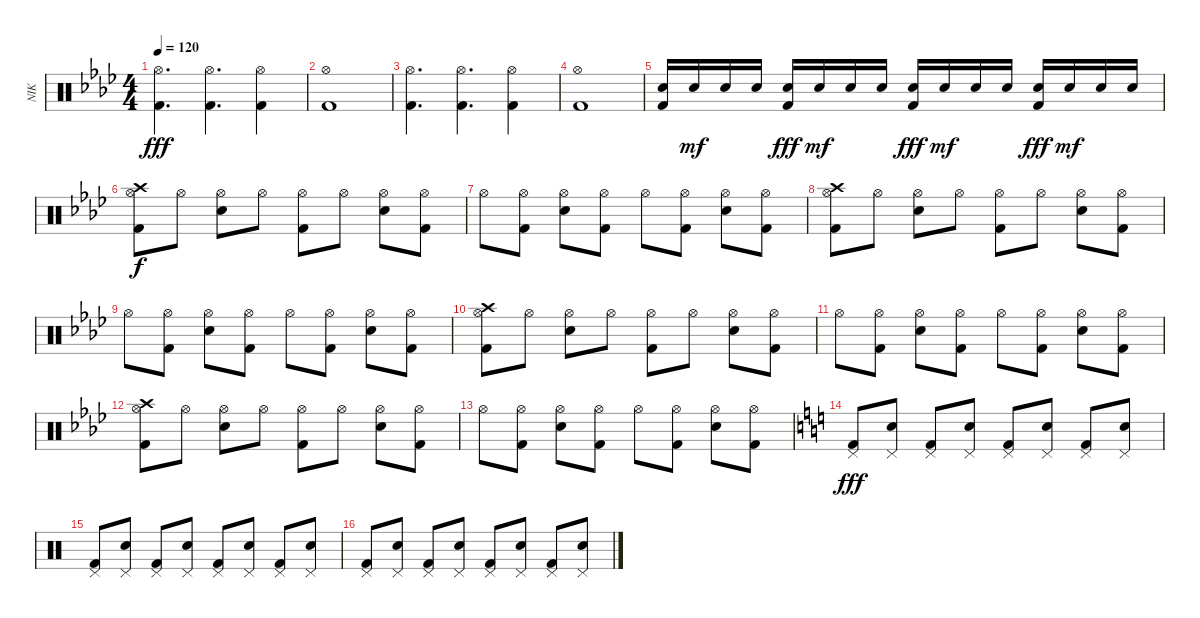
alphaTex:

\track ("NIK" "NIK") {instrument percussion}
\staff {score}
\articulation defaults
\ts (4 4)
\tempo 120
\clef neutral
\ks ab
("Kick (hit) 2" "Hi-Hat (open)").4{d dy fff} ("Kick (hit) 2" "Hi-Hat (open)").4{d} ("Kick (hit) 2" "Hi-Hat (open)").4 |
("Kick (hit) 2" "Hi-Hat (open)").1 |
("Kick (hit) 2" "Hi-Hat (open)").4{d} ("Kick (hit) 2" "Hi-Hat (open)").4{d} ("Kick (hit) 2" "Hi-Hat (open)").4 |
("Kick (hit) 2" "Hi-Hat (open)").1 |
("Electric Snare (hit)" "Kick (hit) 2").16 "Electric Snare (hit)".16{dy mf} "Electric Snare (hit)".16 "Electric Snare (hit)".16 ("Electric Snare (hit)" "Kick (hit) 2").16{dy fff} "Electric Snare (hit)".16{dy mf} "Electric Snare (hit)".16 "Electric Snare (hit)".16 ("Electric Snare (hit)" "Kick (hit) 2").16{dy fff} "Electric Snare (hit)".16{dy mf} "Electric Snare (hit)".16 "Electric Snare (hit)".16 ("Electric Snare (hit)" "Kick (hit) 2").16{dy fff} "Electric Snare (hit)".16{dy mf} "Electric Snare (hit)".16 "Electric Snare (hit)".16 |
("Crash high (hit)" "Hi-Hat (open)" "Kick (hit) 2").8{dy f} "Hi-Hat (open)".8 ("Hi-Hat (open)" "Electric Snare (hit)").8 "Hi-Hat (open)".8 ("Hi-Hat (open)" "Kick (hit) 2").8 "Hi-Hat (open)".8 ("Hi-Hat (open)" "Electric Snare (hit)").8 ("Hi-Hat (open)" "Kick (hit) 2").8 |
"Hi-Hat (open)".8 ("Hi-Hat (open)" "Kick (hit) 2").8 ("Hi-Hat (open)" "Electric Snare (hit)").8 ("Hi-Hat (open)" "Kick (hit) 2").8 "Hi-Hat (open)".8 ("Hi-Hat (open)" "Kick (hit) 2").8 ("Hi-Hat (open)" "Electric Snare (hit)").8 ("Hi-Hat (open)" "Kick (hit) 2").8 |
("Crash high (hit)" "Hi-Hat (open)" "Kick (hit) 2").8 "Hi-Hat (open)".8 ("Hi-Hat (open)" "Electric Snare (hit)").8 "Hi-Hat (open)".8 ("Hi-Hat (open)" "Kick (hit) 2").8 "Hi-Hat (open)".8 ("Hi-Hat (open)" "Electric Snare (hit)").8 ("Hi-Hat (open)" "Kick (hit) 2").8 |
"Hi-Hat (open)".8 ("Hi-Hat (open)" "Kick (hit) 2").8 ("Hi-Hat (open)" "Electric Snare (hit)").8 ("Hi-Hat (open)" "Kick (hit) 2").8 "Hi-Hat (open)".8 ("Hi-Hat (open)" "Kick (hit) 2").8 ("Hi-Hat (open)" "Electric Snare (hit)").8 ("Hi-Hat (open)" "Kick (hit) 2").8 |
("Crash high (hit)" "Hi-Hat (open)" "Kick (hit) 2").8 "Hi-Hat (open)".8 ("Hi-Hat (open)" "Electric Snare (hit)").8 "Hi-Hat (open)".8 ("Hi-Hat (open)" "Kick (hit) 2").8 "Hi-Hat (open)".8 ("Hi-Hat (open)" "Electric Snare (hit)").8 ("Hi-Hat (open)" "Kick (hit) 2").8 |
"Hi-Hat (open)".8 ("Hi-Hat (open)" "Kick (hit) 2").8 ("Hi-Hat (open)" "Electric Snare (hit)").8 ("Hi-Hat (open)" "Kick (hit) 2").8 "Hi-Hat (open)".8 ("Hi-Hat (open)" "Kick (hit) 2").8 ("Hi-Hat (open)" "Electric Snare (hit)").8 ("Hi-Hat (open)" "Kick (hit) 2").8 |
("Crash high (hit)" "Hi-Hat (open)" "Kick (hit) 2").8 "Hi-Hat (open)".8 ("Hi-Hat (open)" "Electric Snare (hit)").8 "Hi-Hat (open)".8 ("Hi-Hat (open)" "Kick (hit) 2").8 "Hi-Hat (open)".8 ("Hi-Hat (open)" "Electric Snare (hit)").8 ("Hi-Hat (open)" "Kick (hit) 2").8 |
"Hi-Hat (open)".8 ("Hi-Hat (open)" "Kick (hit) 2").8 ("Hi-Hat (open)" "Electric Snare (hit)").8 ("Hi-Hat (open)" "Kick (hit) 2").8 "Hi-Hat (open)".8 ("Hi-Hat (open)" "Kick (hit) 2").8 ("Hi-Hat (open)" "Electric Snare (hit)").8 ("Hi-Hat (open)" "Kick (hit) 2").8 |
\ks c
("Pedal Hi-Hat (hit)" "Kick (hit) 2").8{dy fff} ("Pedal Hi-Hat (hit)" "Electric Snare (hit)").8 ("Pedal Hi-Hat (hit)" "Kick (hit) 2").8 ("Pedal Hi-Hat (hit)" "Electric Snare (hit)").8 ("Pedal Hi-Hat (hit)" "Kick (hit) 2").8 ("Pedal Hi-Hat (hit)" "Electric Snare (hit)").8 ("Pedal Hi-Hat (hit)" "Kick (hit) 2").8 ("Pedal Hi-Hat (hit)" "Electric Snare (hit)").8 |
("Pedal Hi-Hat (hit)" "Kick (hit) 2").8 ("Pedal Hi-Hat (hit)" "Electric Snare (hit)").8 ("Pedal Hi-Hat (hit)" "Kick (hit) 2").8 ("Pedal Hi-Hat (hit)" "Electric Snare (hit)").8 ("Pedal Hi-Hat (hit)" "Kick (hit) 2").8 ("Pedal Hi-Hat (hit)" "Electric Snare (hit)").8 ("Pedal Hi-Hat (hit)" "Kick (hit) 2").8 ("Pedal Hi-Hat (hit)" "Electric Snare (hit)").8 |
("Pedal Hi-Hat (hit)" "Kick (hit) 2").8 ("Pedal Hi-Hat (hit)" "Electric Snare (hit)").8 ("Pedal Hi-Hat (hit)" "Kick (hit) 2").8 ("Pedal Hi-Hat (hit)" "Electric Snare (hit)").8 ("Pedal Hi-Hat (hit)" "Kick (hit) 2").8 ("Pedal Hi-Hat (hit)" "Electric Snare (hit)").8 ("Pedal Hi-Hat (hit)" "Kick (hit) 2").8 ("Pedal Hi-Hat (hit)" "Electric Snare (hit)").8
